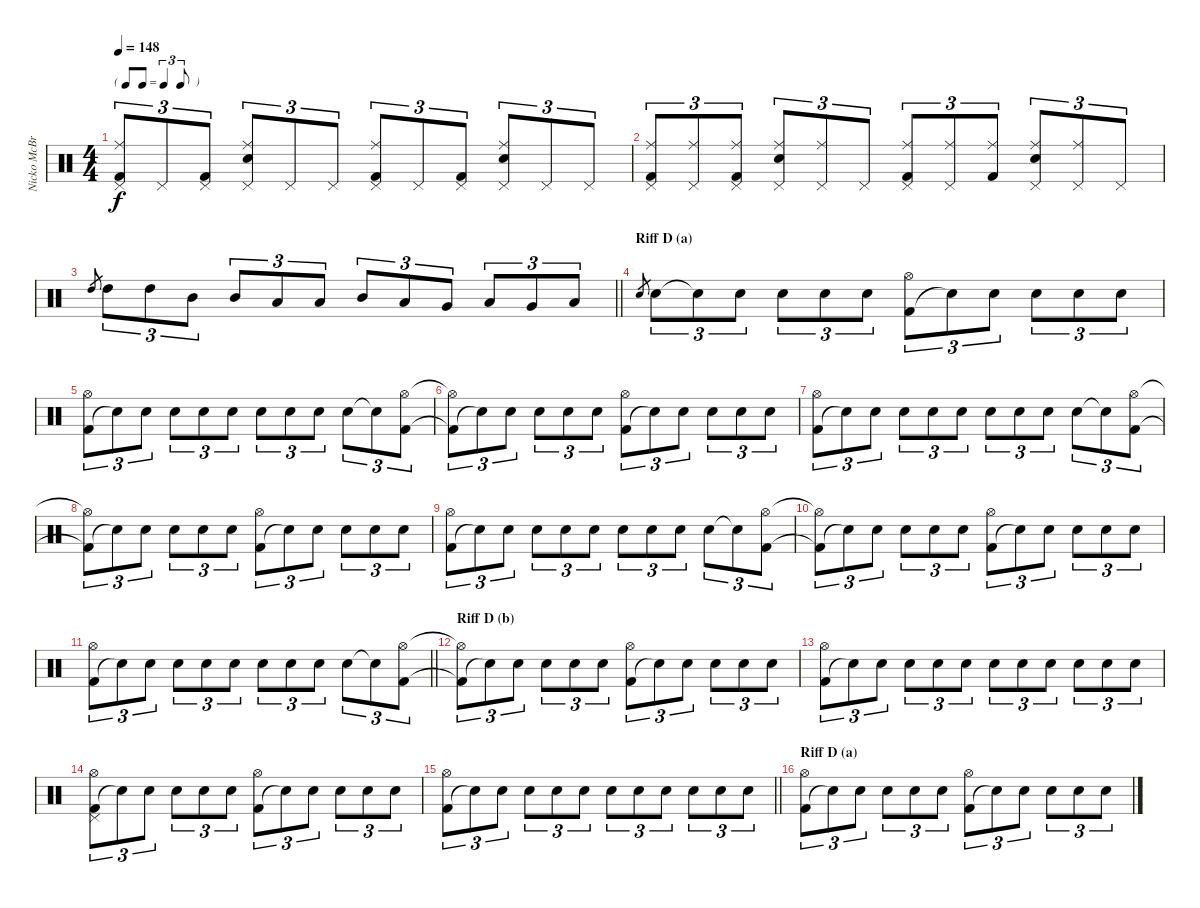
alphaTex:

\track ("Nicko McBrain" "Nicko McBr") {instrument percussion}
\staff {score}
\articulation defaults
\ts (4 4)
\tf triplet8th
\tempo 148
\clef neutral
\ks c
("Kick (hit) 2" "Pedal Hi-Hat (hit)" "Ride (middle)").8{tu (3 2) dy f} "Pedal Hi-Hat (hit)".8{tu (3 2)} ("Kick (hit) 2" "Pedal Hi-Hat (hit)").8{tu (3 2)} ("Snare (hit) 2" "Pedal Hi-Hat (hit)" "Ride (middle)").8{tu (3 2)} "Pedal Hi-Hat (hit)".8{tu (3 2)} "Pedal Hi-Hat (hit)".8{tu (3 2)} ("Kick (hit) 2" "Pedal Hi-Hat (hit)" "Ride (middle)").8{tu (3 2)} "Pedal Hi-Hat (hit)".8{tu (3 2)} ("Kick (hit) 2" "Pedal Hi-Hat (hit)").8{tu (3 2)} ("Snare (hit) 2" "Pedal Hi-Hat (hit)" "Ride (middle)").8{tu (3 2)} "Pedal Hi-Hat (hit)".8{tu (3 2)} "Pedal Hi-Hat (hit)".8{tu (3 2)} |
("Kick (hit) 2" "Pedal Hi-Hat (hit)" "Ride (middle)").8{tu (3 2)} ("Pedal Hi-Hat (hit)" "Ride (middle)").8{tu (3 2)} ("Kick (hit) 2" "Pedal Hi-Hat (hit)" "Ride (middle)").8{tu (3 2)} ("Snare (hit) 2" "Pedal Hi-Hat (hit)" "Ride (middle)").8{tu (3 2)} ("Pedal Hi-Hat (hit)" "Ride (middle)").8{tu (3 2)} "Pedal Hi-Hat (hit)".8{tu (3 2)} ("Kick (hit) 2" "Pedal Hi-Hat (hit)" "Ride (middle)").8{tu (3 2)} ("Pedal Hi-Hat (hit)" "Ride (middle)").8{tu (3 2)} ("Kick (hit) 2" "Ride (middle)").8{tu (3 2)} ("Snare (hit) 2" "Pedal Hi-Hat (hit)" "Ride (middle)").8{tu (3 2)} ("Pedal Hi-Hat (hit)" "Ride (middle)").8{tu (3 2)} "Pedal Hi-Hat (hit)".8{tu (3 2)} |
\barLineRight lightlight "High Tom (hit)".8{gr} "High Tom (hit)".8{tu (3 2)} "High Tom (hit)".8{tu (3 2)} "Mid Tom (hit)".8{tu (3 2)} "Mid Tom (hit)".8{tu (3 2)} "Low Tom (hit)".8{tu (3 2)} "Low Tom (hit)".8{tu (3 2)} "Mid Tom (hit)".8{tu (3 2)} "Low Tom (hit)".8{tu (3 2)} "Very Low Tom (hit)".8{tu (3 2)} "Low Tom (hit)".8{tu (3 2)} "Very Low Tom (hit)".8{tu (3 2)} "Low Floor Tom (hit)".8{tu (3 2)}
|
\section ("" "Riff D (a)")
"Snare (hit) 2".8{gr} "Snare (hit) 2".8{tu (3 2)} "Snare (hit)"{t}.8{tu (3 2)} "Snare (hit) 2".8{tu (3 2)} "Snare (hit) 2".8{tu (3 2)} "Snare (hit) 2".8{tu (3 2)} "Snare (hit) 2".8{tu (3 2)} ("Kick (hit) 2" "Hi-Hat (open)").8{tu (3 2)} "Snare (hit)"{t}.8{tu (3 2)} "Snare (hit) 2".8{tu (3 2)} "Snare (hit) 2".8{tu (3 2)} "Snare (hit) 2".8{tu (3 2)} "Snare (hit) 2".8{tu (3 2)} |
("Kick (hit) 2" "Hi-Hat (open)").8{tu (3 2)} "Snare (hit)"{t}.8{tu (3 2)} "Snare (hit) 2".8{tu (3 2)} "Snare (hit) 2".8{tu (3 2)} "Snare (hit) 2".8{tu (3 2)} "Snare (hit) 2".8{tu (3 2)} "Snare (hit) 2".8{tu (3 2)} "Snare (hit) 2".8{tu (3 2)} "Snare (hit) 2".8{tu (3 2)} "Snare (hit) 2".8{tu (3 2)} "Snare (hit) 2"{t}.8{tu (3 2)} ("Kick (hit) 2" "Hi-Hat (open)").8{tu (3 2)} |
("Kick (hit) 2"{t} "Hi-Hat (open)"{t}).8{tu (3 2)} "Snare (hit)"{t}.8{tu (3 2)} "Snare (hit) 2".8{tu (3 2)} "Snare (hit) 2".8{tu (3 2)} "Snare (hit) 2".8{tu (3 2)} "Snare (hit) 2".8{tu (3 2)} ("Kick (hit) 2" "Hi-Hat (open)").8{tu (3 2)} "Snare (hit)"{t}.8{tu (3 2)} "Snare (hit) 2".8{tu (3 2)} "Snare (hit) 2".8{tu (3 2)} "Snare (hit) 2".8{tu (3 2)} "Snare (hit) 2".8{tu (3 2)} |
("Kick (hit) 2" "Hi-Hat (open)").8{tu (3 2)} "Snare (hit)"{t}.8{tu (3 2)} "Snare (hit) 2".8{tu (3 2)} "Snare (hit) 2".8{tu (3 2)} "Snare (hit) 2".8{tu (3 2)} "Snare (hit) 2".8{tu (3 2)} "Snare (hit) 2".8{tu (3 2)} "Snare (hit) 2".8{tu (3 2)} "Snare (hit) 2".8{tu (3 2)} "Snare (hit) 2".8{tu (3 2)} "Snare (hit) 2"{t}.8{tu (3 2)} ("Kick (hit) 2" "Hi-Hat (open)").8{tu (3 2)} |
("Kick (hit) 2"{t} "Hi-Hat (open)"{t}).8{tu (3 2)} "Snare (hit)"{t}.8{tu (3 2)} "Snare (hit) 2".8{tu (3 2)} "Snare (hit) 2".8{tu (3 2)} "Snare (hit) 2".8{tu (3 2)} "Snare (hit) 2".8{tu (3 2)} ("Kick (hit) 2" "Hi-Hat (open)").8{tu (3 2)} "Snare (hit)"{t}.8{tu (3 2)} "Snare (hit) 2".8{tu (3 2)} "Snare (hit) 2".8{tu (3 2)} "Snare (hit) 2".8{tu (3 2)} "Snare (hit) 2".8{tu (3 2)} |
("Kick (hit) 2" "Hi-Hat (open)").8{tu (3 2)} "Snare (hit)"{t}.8{tu (3 2)} "Snare (hit) 2".8{tu (3 2)} "Snare (hit) 2".8{tu (3 2)} "Snare (hit) 2".8{tu (3 2)} "Snare (hit) 2".8{tu (3 2)} "Snare (hit) 2".8{tu (3 2)} "Snare (hit) 2".8{tu (3 2)} "Snare (hit) 2".8{tu (3 2)} "Snare (hit) 2".8{tu (3 2)} "Snare (hit) 2"{t}.8{tu (3 2)} ("Kick (hit) 2" "Hi-Hat (open)").8{tu (3 2)} |
("Kick (hit) 2"{t} "Hi-Hat (open)"{t}).8{tu (3 2)} "Snare (hit)"{t}.8{tu (3 2)} "Snare (hit) 2".8{tu (3 2)} "Snare (hit) 2".8{tu (3 2)} "Snare (hit) 2".8{tu (3 2)} "Snare (hit) 2".8{tu (3 2)} ("Kick (hit) 2" "Hi-Hat (open)").8{tu (3 2)} "Snare (hit)"{t}.8{tu (3 2)} "Snare (hit) 2".8{tu (3 2)} "Snare (hit) 2".8{tu (3 2)} "Snare (hit) 2".8{tu (3 2)} "Snare (hit) 2".8{tu (3 2)} |
\barLineRight lightlight
("Kick (hit) 2" "Hi-Hat (open)").8{tu (3 2)} "Snare (hit)"{t}.8{tu (3 2)} "Snare (hit) 2".8{tu (3 2)} "Snare (hit) 2".8{tu (3 2)} "Snare (hit) 2".8{tu (3 2)} "Snare (hit) 2".8{tu (3 2)} "Snare (hit) 2".8{tu (3 2)} "Snare (hit) 2".8{tu (3 2)} "Snare (hit) 2".8{tu (3 2)} "Snare (hit) 2".8{tu (3 2)} "Snare (hit) 2"{t}.8{tu (3 2)} ("Kick (hit) 2" "Hi-Hat (open)").8{tu (3 2)} |
\section ("" "Riff D (b)")
("Kick (hit) 2"{t} "Hi-Hat (open)"{t}).8{tu (3 2)} "Snare (hit)"{t}.8{tu (3 2)} "Snare (hit) 2".8{tu (3 2)} "Snare (hit) 2".8{tu (3 2)} "Snare (hit) 2".8{tu (3 2)} "Snare (hit) 2".8{tu (3 2)} ("Kick (hit) 2" "Hi-Hat (open)").8{tu (3 2)} "Snare (hit)"{t}.8{tu (3 2)} "Snare (hit) 2".8{tu (3 2)} "Snare (hit) 2".8{tu (3 2)} "Snare (hit) 2".8{tu (3 2)} "Snare (hit) 2".8{tu (3 2)} |
("Kick (hit) 2" "Hi-Hat (open)").8{tu (3 2)} "Snare (hit)"{t}.8{tu (3 2)} "Snare (hit) 2".8{tu (3 2)} "Snare (hit) 2".8{tu (3 2)} "Snare (hit) 2".8{tu (3 2)} "Snare (hit) 2".8{tu (3 2)} "Snare (hit) 2".8{tu (3 2)} "Snare (hit) 2".8{tu (3 2)} "Snare (hit) 2".8{tu (3 2)} "Snare (hit) 2".8{tu (3 2)} "Snare (hit) 2".8{tu (3 2)} "Snare (hit) 2".8{tu (3 2)} |
("Kick (hit) 2" "Pedal Hi-Hat (hit)" "Hi-Hat (open)").8{tu (3 2)} "Snare (hit)"{t}.8{tu (3 2)} "Snare (hit) 2".8{tu (3 2)} "Snare (hit) 2".8{tu (3 2)} "Snare (hit) 2".8{tu (3 2)} "Snare (hit) 2".8{tu (3 2)} ("Kick (hit) 2" "Hi-Hat (open)").8{tu (3 2)} "Snare (hit)"{t}.8{tu (3 2)} "Snare (hit) 2".8{tu (3 2)} "Snare (hit) 2".8{tu (3 2)} "Snare (hit) 2".8{tu (3 2)} "Snare (hit) 2".8{tu (3 2)} |
\barLineRight lightlight
("Kick (hit) 2" "Hi-Hat (open)").8{tu (3 2)} "Snare (hit)"{t}.8{tu (3 2)} "Snare (hit) 2".8{tu (3 2)} "Snare (hit) 2".8{tu (3 2)} "Snare (hit) 2".8{tu (3 2)} "Snare (hit) 2".8{tu (3 2)} "Snare (hit) 2".8{tu (3 2)} "Snare (hit) 2".8{tu (3 2)} "Snare (hit) 2".8{tu (3 2)} "Snare (hit) 2".8{tu (3 2)} "Snare (hit) 2".8{tu (3 2)} "Snare (hit) 2".8{tu (3 2)} |
\section ("" "Riff D (a)")
("Kick (hit) 2" "Hi-Hat (open)").8{tu (3 2)} "Snare (hit)"{t}.8{tu (3 2)} "Snare (hit) 2".8{tu (3 2)} "Snare (hit) 2".8{tu (3 2)} "Snare (hit) 2".8{tu (3 2)} "Snare (hit) 2".8{tu (3 2)} ("Kick (hit) 2" "Hi-Hat (open)").8{tu (3 2)} "Snare (hit)"{t}.8{tu (3 2)} "Snare (hit) 2".8{tu (3 2)} "Snare (hit) 2".8{tu (3 2)} "Snare (hit) 2".8{tu (3 2)} "Snare (hit) 2".8{tu (3 2)}
